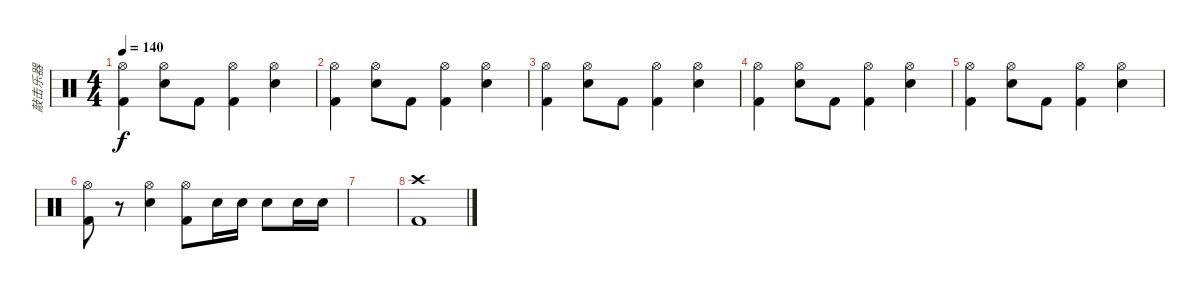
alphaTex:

\track ("敲击乐器" "敲击乐器") {instrument percussion}
\staff {score}
\articulation defaults
\ts (4 4)
\tempo 140
\clef neutral
\ks c
("Hi-Hat (open)" "Kick (hit) 2").4{dy f} ("Hi-Hat (open)" "Electric Snare (hit)").8 "Kick (hit) 2".8 ("Hi-Hat (open)" "Kick (hit) 2").4 ("Hi-Hat (open)" "Electric Snare (hit)").4 |
("Hi-Hat (open)" "Kick (hit) 2").4 ("Hi-Hat (open)" "Electric Snare (hit)").8 "Kick (hit) 2".8 ("Hi-Hat (open)" "Kick (hit) 2").4 ("Hi-Hat (open)" "Electric Snare (hit)").4 |
("Hi-Hat (open)" "Kick (hit) 2").4 ("Hi-Hat (open)" "Electric Snare (hit)").8 "Kick (hit) 2".8 ("Hi-Hat (open)" "Kick (hit) 2").4 ("Hi-Hat (open)" "Electric Snare (hit)").4 |
("Hi-Hat (open)" "Kick (hit) 2").4 ("Hi-Hat (open)" "Electric Snare (hit)").8 "Kick (hit) 2".8 ("Hi-Hat (open)" "Kick (hit) 2").4 ("Hi-Hat (open)" "Electric Snare (hit)").4 |
("Hi-Hat (open)" "Kick (hit) 2").4 ("Hi-Hat (open)" "Electric Snare (hit)").8 "Kick (hit) 2".8 ("Hi-Hat (open)" "Kick (hit) 2").4 ("Hi-Hat (open)" "Electric Snare (hit)").4 |
("Hi-Hat (open)" "Kick (hit) 2").8 r.8 ("Hi-Hat (open)" "Electric Snare (hit)").4 ("Hi-Hat (open)" "Kick (hit) 2").8 "Electric Snare (hit)".16 "Electric Snare (hit)".16 "Electric Snare (hit)".8 "Electric Snare (hit)".16 "Electric Snare (hit)".16 |
|
("Crash high (hit)" "Kick (hit) 2").1
